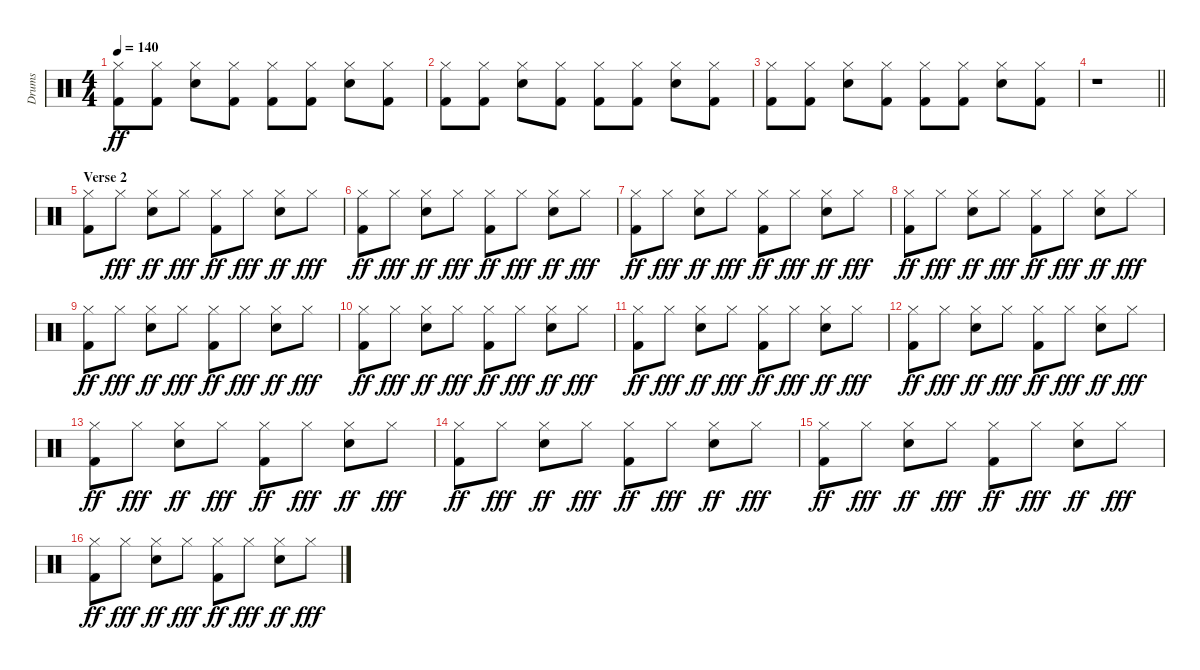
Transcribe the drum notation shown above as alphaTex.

\track ("Drums" "Drums") {instrument percussion}
\staff {score}
\articulation defaults
\ts (4 4)
\tempo 140
\clef neutral
\ks c
("Hi-Hat (closed)" "Kick (hit) 2").8{dy ff} ("Hi-Hat (closed)" "Kick (hit) 2").8 ("Hi-Hat (closed)" "Snare (hit) 2").8 ("Hi-Hat (closed)" "Kick (hit) 2").8 ("Hi-Hat (closed)" "Kick (hit) 2").8 ("Hi-Hat (closed)" "Kick (hit) 2").8 ("Hi-Hat (closed)" "Snare (hit) 2").8 ("Hi-Hat (closed)" "Kick (hit) 2").8 |
("Hi-Hat (closed)" "Kick (hit) 2").8 ("Hi-Hat (closed)" "Kick (hit) 2").8 ("Hi-Hat (closed)" "Snare (hit) 2").8 ("Hi-Hat (closed)" "Kick (hit) 2").8 ("Hi-Hat (closed)" "Kick (hit) 2").8 ("Hi-Hat (closed)" "Kick (hit) 2").8 ("Hi-Hat (closed)" "Snare (hit) 2").8 ("Hi-Hat (closed)" "Kick (hit) 2").8 |
("Hi-Hat (closed)" "Kick (hit) 2").8 ("Hi-Hat (closed)" "Kick (hit) 2").8 ("Hi-Hat (closed)" "Snare (hit) 2").8 ("Hi-Hat (closed)" "Kick (hit) 2").8 ("Hi-Hat (closed)" "Kick (hit) 2").8 ("Hi-Hat (closed)" "Kick (hit) 2").8 ("Hi-Hat (closed)" "Snare (hit) 2").8 ("Hi-Hat (closed)" "Kick (hit) 2").8 |
\barLineRight lightlight
r.1 |
\section ("" "Verse 2")
("Hi-Hat (closed)" "Kick (hit) 2").8 "Hi-Hat (closed)".8{dy fff} ("Hi-Hat (closed)" "Snare (hit) 2").8{dy ff} "Hi-Hat (closed)".8{dy fff} ("Hi-Hat (closed)" "Kick (hit) 2").8{dy ff} "Hi-Hat (closed)".8{dy fff} ("Hi-Hat (closed)" "Snare (hit) 2").8{dy ff} "Hi-Hat (closed)".8{dy fff} |
("Hi-Hat (closed)" "Kick (hit) 2").8{dy ff} "Hi-Hat (closed)".8{dy fff} ("Hi-Hat (closed)" "Snare (hit) 2").8{dy ff} "Hi-Hat (closed)".8{dy fff} ("Hi-Hat (closed)" "Kick (hit) 2").8{dy ff} "Hi-Hat (closed)".8{dy fff} ("Hi-Hat (closed)" "Snare (hit) 2").8{dy ff} "Hi-Hat (closed)".8{dy fff} |
("Hi-Hat (closed)" "Kick (hit) 2").8{dy ff} "Hi-Hat (closed)".8{dy fff} ("Hi-Hat (closed)" "Snare (hit) 2").8{dy ff} "Hi-Hat (closed)".8{dy fff} ("Hi-Hat (closed)" "Kick (hit) 2").8{dy ff} "Hi-Hat (closed)".8{dy fff} ("Hi-Hat (closed)" "Snare (hit) 2").8{dy ff} "Hi-Hat (closed)".8{dy fff} |
("Hi-Hat (closed)" "Kick (hit) 2").8{dy ff} "Hi-Hat (closed)".8{dy fff} ("Hi-Hat (closed)" "Snare (hit) 2").8{dy ff} "Hi-Hat (closed)".8{dy fff} ("Hi-Hat (closed)" "Kick (hit) 2").8{dy ff} "Hi-Hat (closed)".8{dy fff} ("Hi-Hat (closed)" "Snare (hit) 2").8{dy ff} "Hi-Hat (closed)".8{dy fff} |
("Hi-Hat (closed)" "Kick (hit) 2").8{dy ff} "Hi-Hat (closed)".8{dy fff} ("Hi-Hat (closed)" "Snare (hit) 2").8{dy ff} "Hi-Hat (closed)".8{dy fff} ("Hi-Hat (closed)" "Kick (hit) 2").8{dy ff} "Hi-Hat (closed)".8{dy fff} ("Hi-Hat (closed)" "Snare (hit) 2").8{dy ff} "Hi-Hat (closed)".8{dy fff} |
("Hi-Hat (closed)" "Kick (hit) 2").8{dy ff} "Hi-Hat (closed)".8{dy fff} ("Hi-Hat (closed)" "Snare (hit) 2").8{dy ff} "Hi-Hat (closed)".8{dy fff} ("Hi-Hat (closed)" "Kick (hit) 2").8{dy ff} "Hi-Hat (closed)".8{dy fff} ("Hi-Hat (closed)" "Snare (hit) 2").8{dy ff} "Hi-Hat (closed)".8{dy fff} |
("Hi-Hat (closed)" "Kick (hit) 2").8{dy ff} "Hi-Hat (closed)".8{dy fff} ("Hi-Hat (closed)" "Snare (hit) 2").8{dy ff} "Hi-Hat (closed)".8{dy fff} ("Hi-Hat (closed)" "Kick (hit) 2").8{dy ff} "Hi-Hat (closed)".8{dy fff} ("Hi-Hat (closed)" "Snare (hit) 2").8{dy ff} "Hi-Hat (closed)".8{dy fff} |
("Hi-Hat (closed)" "Kick (hit) 2").8{dy ff} "Hi-Hat (closed)".8{dy fff} ("Hi-Hat (closed)" "Snare (hit) 2").8{dy ff} "Hi-Hat (closed)".8{dy fff} ("Hi-Hat (closed)" "Kick (hit) 2").8{dy ff} "Hi-Hat (closed)".8{dy fff} ("Hi-Hat (closed)" "Snare (hit) 2").8{dy ff} "Hi-Hat (closed)".8{dy fff} |
("Hi-Hat (closed)" "Kick (hit) 2").8{dy ff} "Hi-Hat (closed)".8{dy fff} ("Hi-Hat (closed)" "Snare (hit) 2").8{dy ff} "Hi-Hat (closed)".8{dy fff} ("Hi-Hat (closed)" "Kick (hit) 2").8{dy ff} "Hi-Hat (closed)".8{dy fff} ("Hi-Hat (closed)" "Snare (hit) 2").8{dy ff} "Hi-Hat (closed)".8{dy fff} |
("Hi-Hat (closed)" "Kick (hit) 2").8{dy ff} "Hi-Hat (closed)".8{dy fff} ("Hi-Hat (closed)" "Snare (hit) 2").8{dy ff} "Hi-Hat (closed)".8{dy fff} ("Hi-Hat (closed)" "Kick (hit) 2").8{dy ff} "Hi-Hat (closed)".8{dy fff} ("Hi-Hat (closed)" "Snare (hit) 2").8{dy ff} "Hi-Hat (closed)".8{dy fff} |
("Hi-Hat (closed)" "Kick (hit) 2").8{dy ff} "Hi-Hat (closed)".8{dy fff} ("Hi-Hat (closed)" "Snare (hit) 2").8{dy ff} "Hi-Hat (closed)".8{dy fff} ("Hi-Hat (closed)" "Kick (hit) 2").8{dy ff} "Hi-Hat (closed)".8{dy fff} ("Hi-Hat (closed)" "Snare (hit) 2").8{dy ff} "Hi-Hat (closed)".8{dy fff} |
("Hi-Hat (closed)" "Kick (hit) 2").8{dy ff} "Hi-Hat (closed)".8{dy fff} ("Hi-Hat (closed)" "Snare (hit) 2").8{dy ff} "Hi-Hat (closed)".8{dy fff} ("Hi-Hat (closed)" "Kick (hit) 2").8{dy ff} "Hi-Hat (closed)".8{dy fff} ("Hi-Hat (closed)" "Snare (hit) 2").8{dy ff} "Hi-Hat (closed)".8{dy fff}
